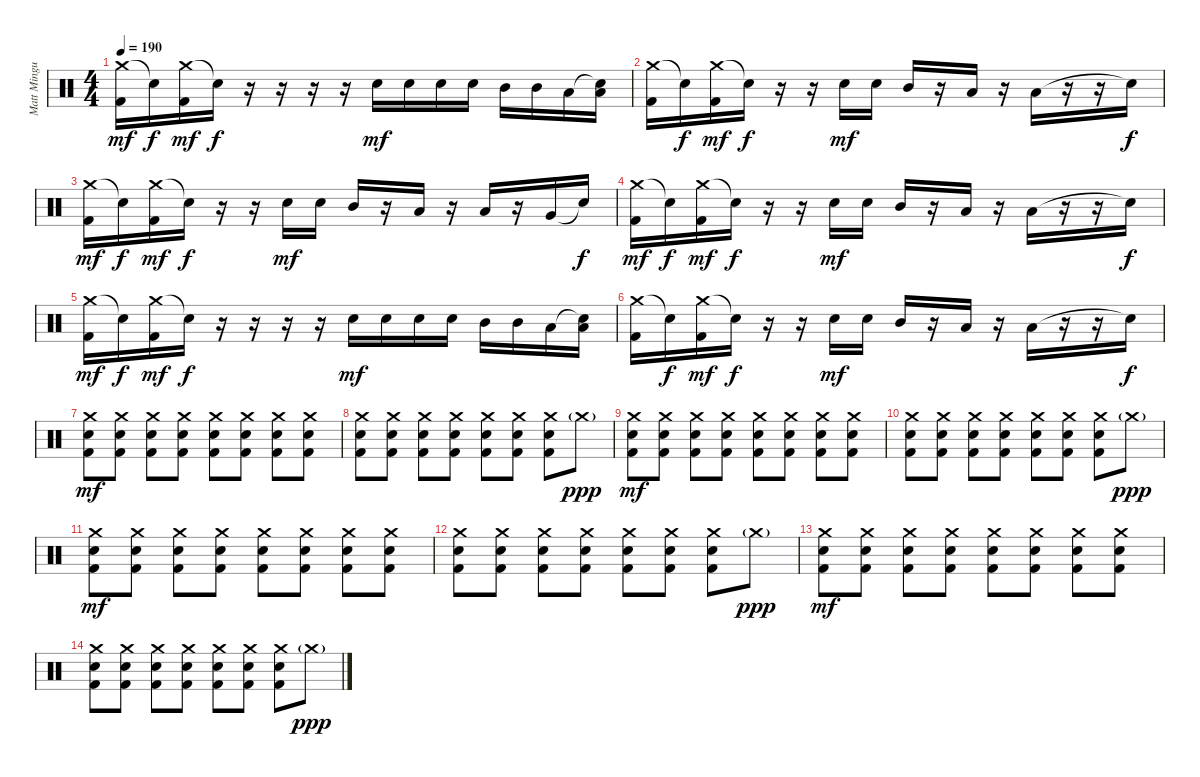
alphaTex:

\track ("Matt Mingus" "Matt Mingu") {instrument percussion}
\staff {score}
\articulation defaults
\ts (4 4)
\tempo 190
\clef neutral
\ks c
("Crash medium (hit)" "Kick (hit) 2").16{dy mf} "Snare (hit)"{t}.16{dy f} ("Crash medium (hit)" "Kick (hit) 2").16{dy mf} "Snare (hit)"{t}.16{dy f} r.16 r.16 r.16 r.16 "Electric Snare (hit)".16{dy mf} "Electric Snare (hit)".16 "Electric Snare (hit)".16 "Electric Snare (hit)".16 "Mid Tom (hit)".16 "Mid Tom (hit)".16 "Low Tom (hit)".16 ("Snare (hit)"{t} "Low Tom (hit)").16 |
("Crash medium (hit)" "Kick (hit) 2").16 "Snare (hit)"{t}.16{dy f} ("Crash medium (hit)" "Kick (hit) 2").16{dy mf} "Snare (hit)"{t}.16{dy f} r.16 r.16 "Electric Snare (hit)".16{dy mf} "Electric Snare (hit)".16 "Mid Tom (hit)".16 r.16 "Low Tom (hit)".16 r.16 "Low Tom (hit)".16 r.16 r.16 "Snare (hit)"{t}.16{dy f} |
("Crash medium (hit)" "Kick (hit) 2").16{dy mf} "Snare (hit)"{t}.16{dy f} ("Crash medium (hit)" "Kick (hit) 2").16{dy mf} "Snare (hit)"{t}.16{dy f} r.16 r.16 "Electric Snare (hit)".16{dy mf} "Electric Snare (hit)".16 "Mid Tom (hit)".16 r.16 "Low Tom (hit)".16 r.16 "Low Tom (hit)".16 r.16 "Very Low Tom (hit)".16 "Snare (hit)"{t}.16{dy f} |
("Crash medium (hit)" "Kick (hit) 2").16{dy mf} "Snare (hit)"{t}.16{dy f} ("Crash medium (hit)" "Kick (hit) 2").16{dy mf} "Snare (hit)"{t}.16{dy f} r.16 r.16 "Electric Snare (hit)".16{dy mf} "Electric Snare (hit)".16 "Mid Tom (hit)".16 r.16 "Low Tom (hit)".16 r.16 "Low Tom (hit)".16 r.16 r.16 "Snare (hit)"{t}.16{dy f} |
("Crash medium (hit)" "Kick (hit) 2").16{dy mf} "Snare (hit)"{t}.16{dy f} ("Crash medium (hit)" "Kick (hit) 2").16{dy mf} "Snare (hit)"{t}.16{dy f} r.16 r.16 r.16 r.16 "Electric Snare (hit)".16{dy mf} "Electric Snare (hit)".16 "Electric Snare (hit)".16 "Electric Snare (hit)".16 "Mid Tom (hit)".16 "Mid Tom (hit)".16 "Low Tom (hit)".16 ("Snare (hit)"{t} "Low Tom (hit)").16 |
("Crash medium (hit)" "Kick (hit) 2").16 "Snare (hit)"{t}.16{dy f} ("Crash medium (hit)" "Kick (hit) 2").16{dy mf} "Snare (hit)"{t}.16{dy f} r.16 r.16 "Electric Snare (hit)".16{dy mf} "Electric Snare (hit)".16 "Mid Tom (hit)".16 r.16 "Low Tom (hit)".16 r.16 "Low Tom (hit)".16 r.16 r.16 "Snare (hit)"{t}.16{dy f} |
("Crash medium (hit)" "Electric Snare (hit)" "Kick (hit) 2").8{dy mf} ("Crash medium (hit)" "Electric Snare (hit)" "Kick (hit) 2").8 ("Crash medium (hit)" "Electric Snare (hit)" "Kick (hit) 2").8 ("Crash medium (hit)" "Electric Snare (hit)" "Kick (hit) 2").8 ("Crash medium (hit)" "Electric Snare (hit)" "Kick (hit) 2").8 ("Crash medium (hit)" "Electric Snare (hit)" "Kick (hit) 2").8 ("Crash medium (hit)" "Electric Snare (hit)" "Kick (hit) 2").8 ("Crash medium (hit)" "Electric Snare (hit)" "Kick (hit) 2").8 |
("Crash medium (hit)" "Electric Snare (hit)" "Kick (hit) 2").8 ("Crash medium (hit)" "Electric Snare (hit)" "Kick (hit) 2").8 ("Crash medium (hit)" "Electric Snare (hit)" "Kick (hit) 2").8 ("Crash medium (hit)" "Electric Snare (hit)" "Kick (hit) 2").8 ("Crash medium (hit)" "Electric Snare (hit)" "Kick (hit) 2").8 ("Crash medium (hit)" "Electric Snare (hit)" "Kick (hit) 2").8 ("Crash medium (hit)" "Electric Snare (hit)" "Kick (hit) 2").8 "Crash medium (hit)"{g}.8{dy ppp} |
("Crash medium (hit)" "Electric Snare (hit)" "Kick (hit) 2").8{dy mf} ("Crash medium (hit)" "Electric Snare (hit)" "Kick (hit) 2").8 ("Crash medium (hit)" "Electric Snare (hit)" "Kick (hit) 2").8 ("Crash medium (hit)" "Electric Snare (hit)" "Kick (hit) 2").8 ("Crash medium (hit)" "Electric Snare (hit)" "Kick (hit) 2").8 ("Crash medium (hit)" "Electric Snare (hit)" "Kick (hit) 2").8 ("Crash medium (hit)" "Electric Snare (hit)" "Kick (hit) 2").8 ("Crash medium (hit)" "Electric Snare (hit)" "Kick (hit) 2").8 |
("Crash medium (hit)" "Electric Snare (hit)" "Kick (hit) 2").8 ("Crash medium (hit)" "Electric Snare (hit)" "Kick (hit) 2").8 ("Crash medium (hit)" "Electric Snare (hit)" "Kick (hit) 2").8 ("Crash medium (hit)" "Electric Snare (hit)" "Kick (hit) 2").8 ("Crash medium (hit)" "Electric Snare (hit)" "Kick (hit) 2").8 ("Crash medium (hit)" "Electric Snare (hit)" "Kick (hit) 2").8 ("Crash medium (hit)" "Electric Snare (hit)" "Kick (hit) 2").8 "Crash medium (hit)"{g}.8{dy ppp} |
("Crash medium (hit)" "Electric Snare (hit)" "Kick (hit) 2").8{dy mf} ("Crash medium (hit)" "Electric Snare (hit)" "Kick (hit) 2").8 ("Crash medium (hit)" "Electric Snare (hit)" "Kick (hit) 2").8 ("Crash medium (hit)" "Electric Snare (hit)" "Kick (hit) 2").8 ("Crash medium (hit)" "Electric Snare (hit)" "Kick (hit) 2").8 ("Crash medium (hit)" "Electric Snare (hit)" "Kick (hit) 2").8 ("Crash medium (hit)" "Electric Snare (hit)" "Kick (hit) 2").8 ("Crash medium (hit)" "Electric Snare (hit)" "Kick (hit) 2").8 |
("Crash medium (hit)" "Electric Snare (hit)" "Kick (hit) 2").8 ("Crash medium (hit)" "Electric Snare (hit)" "Kick (hit) 2").8 ("Crash medium (hit)" "Electric Snare (hit)" "Kick (hit) 2").8 ("Crash medium (hit)" "Electric Snare (hit)" "Kick (hit) 2").8 ("Crash medium (hit)" "Electric Snare (hit)" "Kick (hit) 2").8 ("Crash medium (hit)" "Electric Snare (hit)" "Kick (hit) 2").8 ("Crash medium (hit)" "Electric Snare (hit)" "Kick (hit) 2").8 "Crash medium (hit)"{g}.8{dy ppp} |
("Crash medium (hit)" "Electric Snare (hit)" "Kick (hit) 2").8{dy mf} ("Crash medium (hit)" "Electric Snare (hit)" "Kick (hit) 2").8 ("Crash medium (hit)" "Electric Snare (hit)" "Kick (hit) 2").8 ("Crash medium (hit)" "Electric Snare (hit)" "Kick (hit) 2").8 ("Crash medium (hit)" "Electric Snare (hit)" "Kick (hit) 2").8 ("Crash medium (hit)" "Electric Snare (hit)" "Kick (hit) 2").8 ("Crash medium (hit)" "Electric Snare (hit)" "Kick (hit) 2").8 ("Crash medium (hit)" "Electric Snare (hit)" "Kick (hit) 2").8 |
("Crash medium (hit)" "Electric Snare (hit)" "Kick (hit) 2").8 ("Crash medium (hit)" "Electric Snare (hit)" "Kick (hit) 2").8 ("Crash medium (hit)" "Electric Snare (hit)" "Kick (hit) 2").8 ("Crash medium (hit)" "Electric Snare (hit)" "Kick (hit) 2").8 ("Crash medium (hit)" "Electric Snare (hit)" "Kick (hit) 2").8 ("Crash medium (hit)" "Electric Snare (hit)" "Kick (hit) 2").8 ("Crash medium (hit)" "Electric Snare (hit)" "Kick (hit) 2").8 "Crash medium (hit)"{g}.8{dy ppp}
